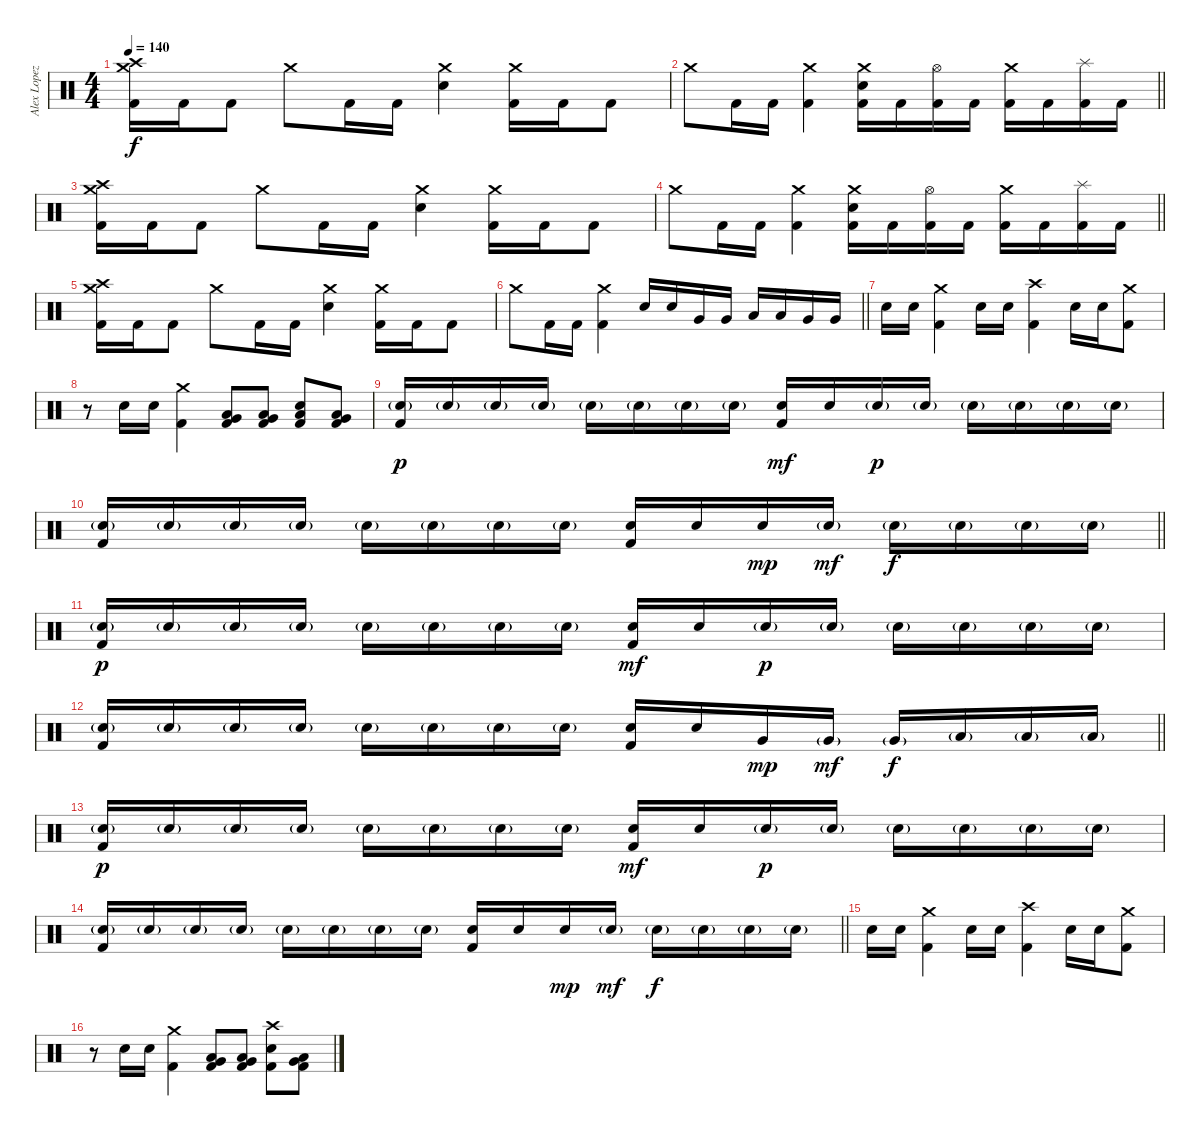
\track ("Alex Lopez" "Alex Lopez") {instrument percussion}
\staff {score}
\articulation defaults
\ts (4 4)
\tempo 140
\clef neutral
\ks c
("Crash medium (hit)" "Crash high (hit)" "Kick (hit) 2").16{dy f} "Kick (hit) 2".16 "Kick (hit) 2".8 "Crash medium (hit)".8 "Kick (hit) 2".16 "Kick (hit) 2".16 ("Crash medium (hit)" "Electric Snare (hit)").4 ("Crash medium (hit)" "Kick (hit) 2").16 "Kick (hit) 2".16 "Kick (hit) 2".8 |
\barLineRight lightlight "Crash medium (hit)".8 "Kick (hit) 2".16 "Kick (hit) 2".16
("Crash medium (hit)" "Kick (hit) 2").4 ("Crash medium (hit)" "Electric Snare (hit)" "Kick (hit) 2").16 "Kick (hit) 2".16 ("Hi-Hat (open)" "Kick (hit) 2").16 "Kick (hit) 2".16 ("Crash medium (hit)" "Kick (hit) 2").16 "Kick (hit) 2".16 ("Splash (hit)" "Kick (hit) 2").16 "Kick (hit) 2".16 |
("Crash medium (hit)" "Crash high (hit)" "Kick (hit) 2").16 "Kick (hit) 2".16 "Kick (hit) 2".8 "Crash medium (hit)".8 "Kick (hit) 2".16 "Kick (hit) 2".16 ("Crash medium (hit)" "Electric Snare (hit)").4 ("Crash medium (hit)" "Kick (hit) 2").16 "Kick (hit) 2".16 "Kick (hit) 2".8 |
\barLineRight lightlight "Crash medium (hit)".8 "Kick (hit) 2".16 "Kick (hit) 2".16
("Crash medium (hit)" "Kick (hit) 2").4 ("Crash medium (hit)" "Electric Snare (hit)" "Kick (hit) 2").16 "Kick (hit) 2".16 ("Hi-Hat (open)" "Kick (hit) 2").16 "Kick (hit) 2".16 ("Crash medium (hit)" "Kick (hit) 2").16 "Kick (hit) 2".16 ("Splash (hit)" "Kick (hit) 2").16 "Kick (hit) 2".16 |
("Crash medium (hit)" "Crash high (hit)" "Kick (hit) 2").16 "Kick (hit) 2".16 "Kick (hit) 2".8 "Crash medium (hit)".8 "Kick (hit) 2".16 "Kick (hit) 2".16 ("Crash medium (hit)" "Electric Snare (hit)").4 ("Crash medium (hit)" "Kick (hit) 2").16 "Kick (hit) 2".16 "Kick (hit) 2".8 |
\barLineRight lightlight "Crash medium (hit)".8 "Kick (hit) 2".16 "Kick (hit) 2".16
("Crash medium (hit)" "Kick (hit) 2").4 "Electric Snare (hit)".16 "Electric Snare (hit)".16 "Very Low Tom (hit)".16 "Very Low Tom (hit)".16 "Low Floor Tom (hit)".16 "Low Floor Tom (hit)".16 "Very Low Tom (hit)".16 "Very Low Tom (hit)".16 |
"Electric Snare (hit)".16 "Electric Snare (hit)".16 ("Crash medium (hit)" "Kick (hit) 2").4 "Electric Snare (hit)".16 "Electric Snare (hit)".16 ("Crash high (hit)" "Kick (hit) 2").4 "Electric Snare (hit)".16 "Electric Snare (hit)".16 ("Crash medium (hit)" "Kick (hit) 2").8 |
r.8 "Electric Snare (hit)".16 "Electric Snare (hit)".16 ("Crash medium (hit)" "Kick (hit) 2").4 ("Low Floor Tom (hit)" "Very Low Tom (hit)" "Kick (hit) 2").8 ("Low Floor Tom (hit)" "Very Low Tom (hit)" "Kick (hit) 2").8 ("Low Floor Tom (hit)" "Electric Snare (hit)" "Kick (hit) 2").8 ("Low Floor Tom (hit)" "Very Low Tom (hit)" "Kick (hit) 2").8 |
("Electric Snare (hit)"{g} "Kick (hit) 2").16{dy p} "Electric Snare (hit)"{g}.16 "Electric Snare (hit)"{g}.16 "Electric Snare (hit)"{g}.16 "Electric Snare (hit)"{g}.16 "Electric Snare (hit)"{g}.16 "Electric Snare (hit)"{g}.16 "Electric Snare (hit)"{g}.16 ("Electric Snare (hit)" "Kick (hit) 2").16{dy mf} "Electric Snare (hit)".16 "Electric Snare (hit)"{g}.16{dy p} "Electric Snare (hit)"{g}.16 "Electric Snare (hit)"{g}.16 "Electric Snare (hit)"{g}.16 "Electric Snare (hit)"{g}.16 "Electric Snare (hit)"{g}.16 |
\barLineRight lightlight
("Electric Snare (hit)"{g} "Kick (hit) 2").16 "Electric Snare (hit)"{g}.16 "Electric Snare (hit)"{g}.16 "Electric Snare (hit)"{g}.16 "Electric Snare (hit)"{g}.16 "Electric Snare (hit)"{g}.16 "Electric Snare (hit)"{g}.16 "Electric Snare (hit)"{g}.16 ("Electric Snare (hit)" "Kick (hit) 2").16 "Electric Snare (hit)".16 "Electric Snare (hit)".16{dy mp} "Electric Snare (hit)"{g}.16{dy mf} "Electric Snare (hit)"{g}.16{dy f} "Electric Snare (hit)"{g}.16 "Electric Snare (hit)"{g}.16 "Electric Snare (hit)"{g}.16 |
("Electric Snare (hit)"{g} "Kick (hit) 2").16{dy p} "Electric Snare (hit)"{g}.16 "Electric Snare (hit)"{g}.16 "Electric Snare (hit)"{g}.16 "Electric Snare (hit)"{g}.16 "Electric Snare (hit)"{g}.16 "Electric Snare (hit)"{g}.16 "Electric Snare (hit)"{g}.16 ("Electric Snare (hit)" "Kick (hit) 2").16{dy mf} "Electric Snare (hit)".16 "Electric Snare (hit)"{g}.16{dy p} "Electric Snare (hit)"{g}.16 "Electric Snare (hit)"{g}.16 "Electric Snare (hit)"{g}.16 "Electric Snare (hit)"{g}.16 "Electric Snare (hit)"{g}.16 |
\barLineRight lightlight
("Electric Snare (hit)"{g} "Kick (hit) 2").16 "Electric Snare (hit)"{g}.16 "Electric Snare (hit)"{g}.16 "Electric Snare (hit)"{g}.16 "Electric Snare (hit)"{g}.16 "Electric Snare (hit)"{g}.16 "Electric Snare (hit)"{g}.16 "Electric Snare (hit)"{g}.16 ("Electric Snare (hit)" "Kick (hit) 2").16 "Electric Snare (hit)".16 "Very Low Tom (hit)".16{dy mp} "Very Low Tom (hit)"{g}.16{dy mf} "Very Low Tom (hit)"{g}.16{dy f} "Low Tom (hit)"{g}.16 "Low Tom (hit)"{g}.16 "Low Tom (hit)"{g}.16 |
("Electric Snare (hit)"{g} "Kick (hit) 2").16{dy p} "Electric Snare (hit)"{g}.16 "Electric Snare (hit)"{g}.16 "Electric Snare (hit)"{g}.16 "Electric Snare (hit)"{g}.16 "Electric Snare (hit)"{g}.16 "Electric Snare (hit)"{g}.16 "Electric Snare (hit)"{g}.16 ("Electric Snare (hit)" "Kick (hit) 2").16{dy mf} "Electric Snare (hit)".16 "Electric Snare (hit)"{g}.16{dy p} "Electric Snare (hit)"{g}.16 "Electric Snare (hit)"{g}.16 "Electric Snare (hit)"{g}.16 "Electric Snare (hit)"{g}.16 "Electric Snare (hit)"{g}.16 |
\barLineRight lightlight
("Electric Snare (hit)"{g} "Kick (hit) 2").16 "Electric Snare (hit)"{g}.16 "Electric Snare (hit)"{g}.16 "Electric Snare (hit)"{g}.16 "Electric Snare (hit)"{g}.16 "Electric Snare (hit)"{g}.16 "Electric Snare (hit)"{g}.16 "Electric Snare (hit)"{g}.16 ("Electric Snare (hit)" "Kick (hit) 2").16 "Electric Snare (hit)".16 "Electric Snare (hit)".16{dy mp} "Electric Snare (hit)"{g}.16{dy mf} "Electric Snare (hit)"{g}.16{dy f} "Electric Snare (hit)"{g}.16 "Electric Snare (hit)"{g}.16 "Electric Snare (hit)"{g}.16 |
"Electric Snare (hit)".16 "Electric Snare (hit)".16 ("Crash medium (hit)" "Kick (hit) 2").4 "Electric Snare (hit)".16 "Electric Snare (hit)".16 ("Crash high (hit)" "Kick (hit) 2").4 "Electric Snare (hit)".16 "Electric Snare (hit)".16 ("Crash medium (hit)" "Kick (hit) 2").8 |
r.8 "Electric Snare (hit)".16 "Electric Snare (hit)".16 ("Crash medium (hit)" "Kick (hit) 2").4 ("Low Floor Tom (hit)" "Very Low Tom (hit)" "Kick (hit) 2").8 ("Low Floor Tom (hit)" "Very Low Tom (hit)" "Kick (hit) 2").8 ("Crash high (hit)" "Electric Snare (hit)" "Kick (hit) 2").8 ("Low Floor Tom (hit)" "Very Low Tom (hit)" "Kick (hit) 2").8
